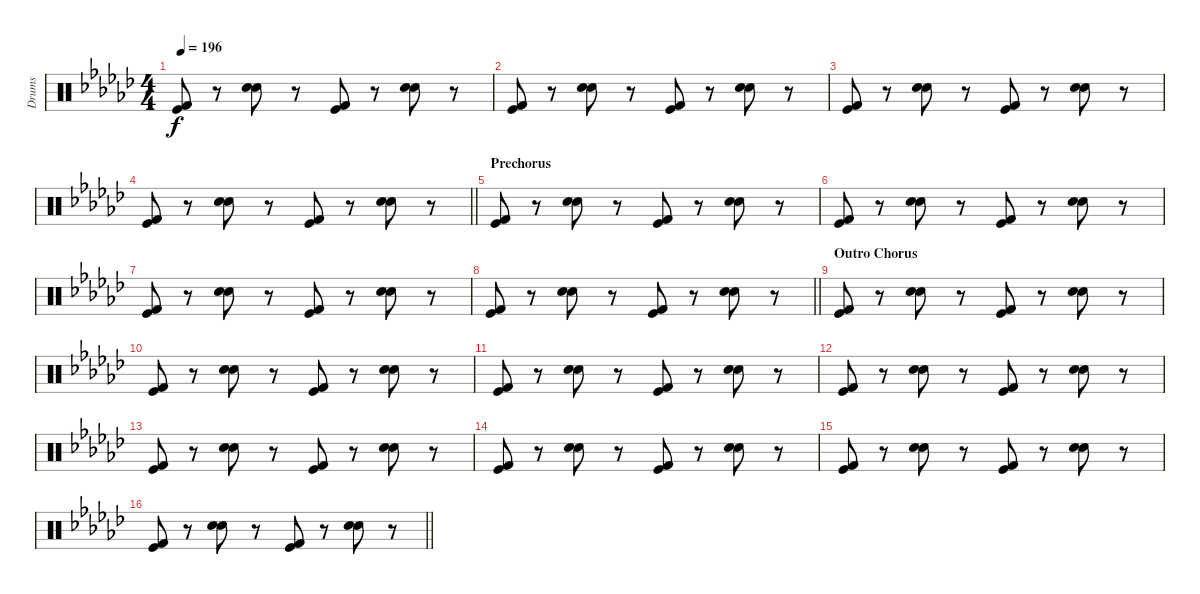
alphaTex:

\track ("Drums" "Drums") {instrument percussion}
\staff {score}
\articulation defaults
\ts (4 4)
\tempo 196
\clef neutral
\ks gb
("Kick (hit) 2" "Kick (hit)").8{dy f} r.8 ("Snare (hit) 2" "Electric Snare (hit)").8 r.8 ("Kick (hit) 2" "Kick (hit)").8 r.8 ("Snare (hit) 2" "Electric Snare (hit)").8 r.8 |
("Kick (hit) 2" "Kick (hit)").8 r.8 ("Snare (hit) 2" "Electric Snare (hit)").8 r.8 ("Kick (hit) 2" "Kick (hit)").8 r.8 ("Snare (hit) 2" "Electric Snare (hit)").8 r.8 |
("Kick (hit) 2" "Kick (hit)").8 r.8 ("Snare (hit) 2" "Electric Snare (hit)").8 r.8 ("Kick (hit) 2" "Kick (hit)").8 r.8 ("Snare (hit) 2" "Electric Snare (hit)").8 r.8 |
\barLineRight lightlight
("Kick (hit) 2" "Kick (hit)").8 r.8 ("Snare (hit) 2" "Electric Snare (hit)").8 r.8 ("Kick (hit) 2" "Kick (hit)").8 r.8 ("Snare (hit) 2" "Electric Snare (hit)").8 r.8 |
\section ("" "Prechorus")
("Kick (hit) 2" "Kick (hit)").8 r.8 ("Snare (hit) 2" "Electric Snare (hit)").8 r.8 ("Kick (hit) 2" "Kick (hit)").8 r.8 ("Snare (hit) 2" "Electric Snare (hit)").8 r.8 |
("Kick (hit) 2" "Kick (hit)").8 r.8 ("Snare (hit) 2" "Electric Snare (hit)").8 r.8 ("Kick (hit) 2" "Kick (hit)").8 r.8 ("Snare (hit) 2" "Electric Snare (hit)").8 r.8 |
("Kick (hit) 2" "Kick (hit)").8 r.8 ("Snare (hit) 2" "Electric Snare (hit)").8 r.8 ("Kick (hit) 2" "Kick (hit)").8 r.8 ("Snare (hit) 2" "Electric Snare (hit)").8 r.8 |
\barLineRight lightlight
("Kick (hit) 2" "Kick (hit)").8 r.8 ("Snare (hit) 2" "Electric Snare (hit)").8 r.8 ("Kick (hit) 2" "Kick (hit)").8 r.8 ("Snare (hit) 2" "Electric Snare (hit)").8 r.8 |
\section ("" "Outro Chorus")
("Kick (hit) 2" "Kick (hit)").8 r.8 ("Snare (hit) 2" "Electric Snare (hit)").8 r.8 ("Kick (hit) 2" "Kick (hit)").8 r.8 ("Snare (hit) 2" "Electric Snare (hit)").8 r.8 |
("Kick (hit) 2" "Kick (hit)").8 r.8 ("Snare (hit) 2" "Electric Snare (hit)").8 r.8 ("Kick (hit) 2" "Kick (hit)").8 r.8 ("Snare (hit) 2" "Electric Snare (hit)").8 r.8 |
("Kick (hit) 2" "Kick (hit)").8 r.8 ("Snare (hit) 2" "Electric Snare (hit)").8 r.8 ("Kick (hit) 2" "Kick (hit)").8 r.8 ("Snare (hit) 2" "Electric Snare (hit)").8 r.8 |
("Kick (hit) 2" "Kick (hit)").8 r.8 ("Snare (hit) 2" "Electric Snare (hit)").8 r.8 ("Kick (hit) 2" "Kick (hit)").8 r.8 ("Snare (hit) 2" "Electric Snare (hit)").8 r.8 |
("Kick (hit) 2" "Kick (hit)").8 r.8 ("Snare (hit) 2" "Electric Snare (hit)").8 r.8 ("Kick (hit) 2" "Kick (hit)").8 r.8 ("Snare (hit) 2" "Electric Snare (hit)").8 r.8 |
("Kick (hit) 2" "Kick (hit)").8 r.8 ("Snare (hit) 2" "Electric Snare (hit)").8 r.8 ("Kick (hit) 2" "Kick (hit)").8 r.8 ("Snare (hit) 2" "Electric Snare (hit)").8 r.8 |
("Kick (hit) 2" "Kick (hit)").8 r.8 ("Snare (hit) 2" "Electric Snare (hit)").8 r.8 ("Kick (hit) 2" "Kick (hit)").8 r.8 ("Snare (hit) 2" "Electric Snare (hit)").8 r.8 |
\barLineRight lightlight
("Kick (hit) 2" "Kick (hit)").8 r.8 ("Snare (hit) 2" "Electric Snare (hit)").8 r.8 ("Kick (hit) 2" "Kick (hit)").8 r.8 ("Snare (hit) 2" "Electric Snare (hit)").8 r.8
